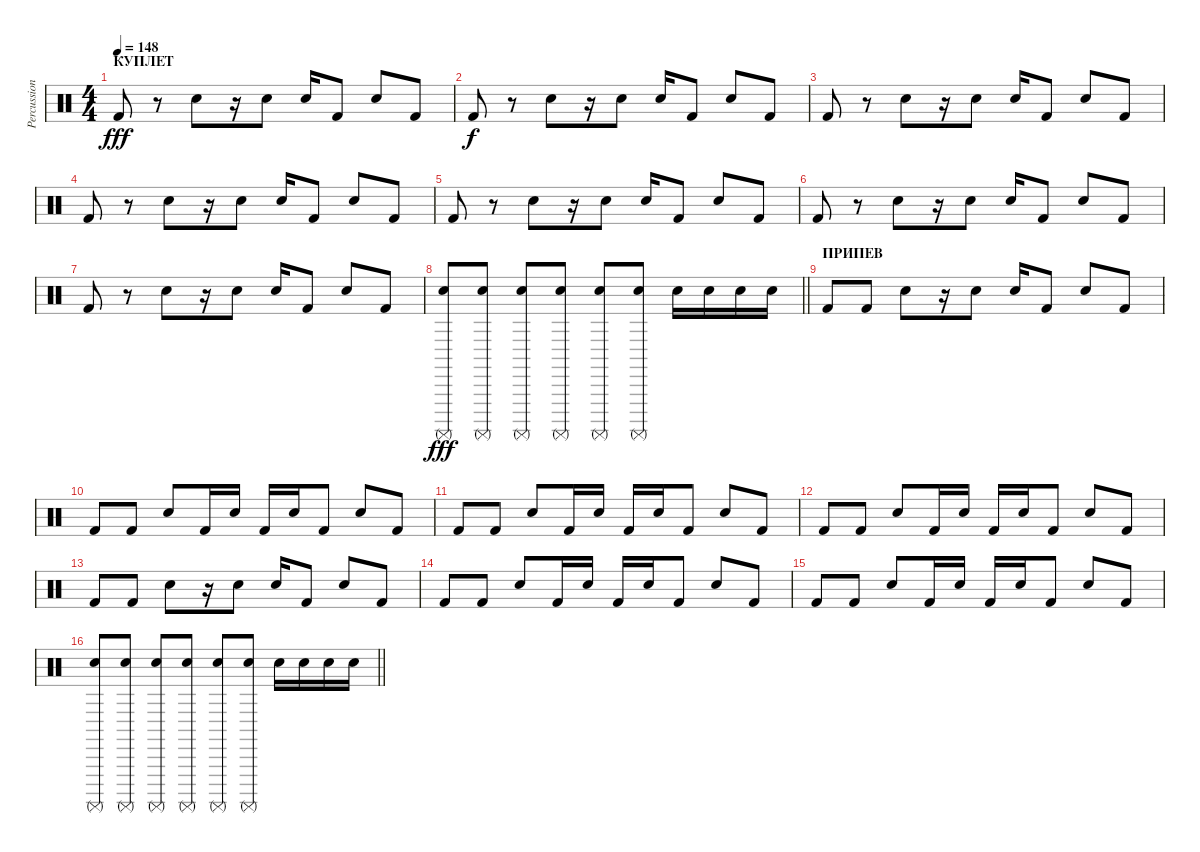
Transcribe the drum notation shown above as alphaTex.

\track ("Percussion" "Percussion") {instrument percussion}
\staff {score}
\articulation defaults
\ts (4 4)
\section ("" "КУПЛЕТ")
\tempo 148
\clef neutral
\ks c "Kick (hit) 2".8{dy fff}
r.8 "Electric Snare (hit)".8 r.16 "Electric Snare (hit)".8 "Electric Snare (hit)".16 "Kick (hit) 2".8 "Electric Snare (hit)".8 "Kick (hit) 2".8 |
"Kick (hit) 2".8{dy f} r.8 "Electric Snare (hit)".8 r.16 "Electric Snare (hit)".8 "Electric Snare (hit)".16 "Kick (hit) 2".8 "Electric Snare (hit)".8 "Kick (hit) 2".8 |
"Kick (hit) 2".8 r.8 "Electric Snare (hit)".8 r.16 "Electric Snare (hit)".8 "Electric Snare (hit)".16 "Kick (hit) 2".8 "Electric Snare (hit)".8 "Kick (hit) 2".8 |
"Kick (hit) 2".8 r.8 "Electric Snare (hit)".8 r.16 "Electric Snare (hit)".8 "Electric Snare (hit)".16 "Kick (hit) 2".8 "Electric Snare (hit)".8 "Kick (hit) 2".8 |
"Kick (hit) 2".8 r.8 "Electric Snare (hit)".8 r.16 "Electric Snare (hit)".8 "Electric Snare (hit)".16 "Kick (hit) 2".8 "Electric Snare (hit)".8 "Kick (hit) 2".8 |
"Kick (hit) 2".8 r.8 "Electric Snare (hit)".8 r.16 "Electric Snare (hit)".8 "Electric Snare (hit)".16 "Kick (hit) 2".8 "Electric Snare (hit)".8 "Kick (hit) 2".8 |
"Kick (hit) 2".8 r.8 "Electric Snare (hit)".8 r.16 "Electric Snare (hit)".8 "Electric Snare (hit)".16 "Kick (hit) 2".8 "Electric Snare (hit)".8 "Kick (hit) 2".8 |
\barLineRight lightlight
("Surdo (mute)" "Electric Snare (hit)").8{dy fff} ("Surdo (mute)" "Electric Snare (hit)").8 ("Surdo (mute)" "Electric Snare (hit)").8 ("Surdo (mute)" "Electric Snare (hit)").8 ("Surdo (mute)" "Electric Snare (hit)").8 ("Surdo (mute)" "Electric Snare (hit)").8 "Electric Snare (hit)".16 "Electric Snare (hit)".16 "Electric Snare (hit)".16 "Electric Snare (hit)".16 |
\section ("" "ПРИПЕВ")
"Kick (hit) 2".8 "Kick (hit) 2".8 "Electric Snare (hit)".8 r.16 "Electric Snare (hit)".8 "Electric Snare (hit)".16 "Kick (hit) 2".8 "Electric Snare (hit)".8 "Kick (hit) 2".8 |
"Kick (hit) 2".8 "Kick (hit) 2".8 "Electric Snare (hit)".8 "Kick (hit) 2".16 "Electric Snare (hit)".16 "Kick (hit) 2".16 "Electric Snare (hit)".16 "Kick (hit) 2".8 "Electric Snare (hit)".8 "Kick (hit) 2".8 |
"Kick (hit) 2".8 "Kick (hit) 2".8 "Electric Snare (hit)".8 "Kick (hit) 2".16 "Electric Snare (hit)".16 "Kick (hit) 2".16 "Electric Snare (hit)".16 "Kick (hit) 2".8 "Electric Snare (hit)".8 "Kick (hit) 2".8 |
"Kick (hit) 2".8 "Kick (hit) 2".8 "Electric Snare (hit)".8 "Kick (hit) 2".16 "Electric Snare (hit)".16 "Kick (hit) 2".16 "Electric Snare (hit)".16 "Kick (hit) 2".8 "Electric Snare (hit)".8 "Kick (hit) 2".8 |
"Kick (hit) 2".8 "Kick (hit) 2".8 "Electric Snare (hit)".8 r.16 "Electric Snare (hit)".8 "Electric Snare (hit)".16 "Kick (hit) 2".8 "Electric Snare (hit)".8 "Kick (hit) 2".8 |
"Kick (hit) 2".8 "Kick (hit) 2".8 "Electric Snare (hit)".8 "Kick (hit) 2".16 "Electric Snare (hit)".16 "Kick (hit) 2".16 "Electric Snare (hit)".16 "Kick (hit) 2".8 "Electric Snare (hit)".8 "Kick (hit) 2".8 |
"Kick (hit) 2".8 "Kick (hit) 2".8 "Electric Snare (hit)".8 "Kick (hit) 2".16 "Electric Snare (hit)".16 "Kick (hit) 2".16 "Electric Snare (hit)".16 "Kick (hit) 2".8 "Electric Snare (hit)".8 "Kick (hit) 2".8 |
\barLineRight lightlight
("Surdo (mute)" "Electric Snare (hit)").8 ("Surdo (mute)" "Electric Snare (hit)").8 ("Surdo (mute)" "Electric Snare (hit)").8 ("Surdo (mute)" "Electric Snare (hit)").8 ("Surdo (mute)" "Electric Snare (hit)").8 ("Surdo (mute)" "Electric Snare (hit)").8 "Electric Snare (hit)".16 "Electric Snare (hit)".16 "Electric Snare (hit)".16 "Electric Snare (hit)".16
